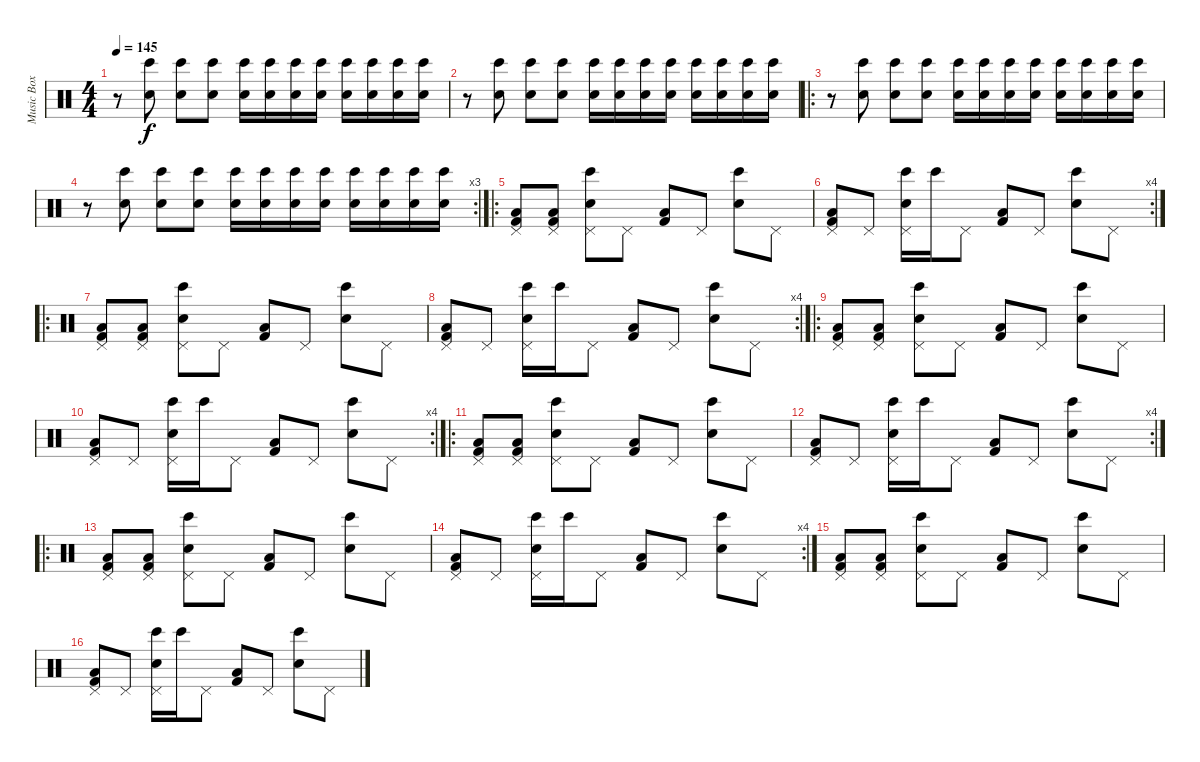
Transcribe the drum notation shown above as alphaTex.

\track ("Music Box" "Music Box") {instrument percussion}
\staff {score}
\articulation defaults
\ts (4 4)
\tempo 145
\clef neutral
\ks c
r.8{dy f} ("Bongo High (hit)" "Snare (hit) 2").8 ("Bongo High (hit)" "Snare (hit) 2").8 ("Bongo High (hit)" "Snare (hit) 2").8 ("Bongo High (hit)" "Snare (hit) 2").16 ("Bongo High (hit)" "Snare (hit) 2").16 ("Bongo High (hit)" "Snare (hit) 2").16 ("Bongo High (hit)" "Snare (hit) 2").16 ("Bongo High (hit)" "Snare (hit) 2").16 ("Bongo High (hit)" "Snare (hit) 2").16 ("Bongo High (hit)" "Snare (hit) 2").16 ("Bongo High (hit)" "Snare (hit) 2").16 |
r.8 ("Bongo High (hit)" "Snare (hit) 2").8 ("Bongo High (hit)" "Snare (hit) 2").8 ("Bongo High (hit)" "Snare (hit) 2").8 ("Bongo High (hit)" "Snare (hit) 2").16 ("Bongo High (hit)" "Snare (hit) 2").16 ("Bongo High (hit)" "Snare (hit) 2").16 ("Bongo High (hit)" "Snare (hit) 2").16 ("Bongo High (hit)" "Snare (hit) 2").16 ("Bongo High (hit)" "Snare (hit) 2").16 ("Bongo High (hit)" "Snare (hit) 2").16 ("Bongo High (hit)" "Snare (hit) 2").16 |
\ro
r.8 ("Bongo High (hit)" "Snare (hit) 2").8 ("Bongo High (hit)" "Snare (hit) 2").8 ("Bongo High (hit)" "Snare (hit) 2").8 ("Bongo High (hit)" "Snare (hit) 2").16 ("Bongo High (hit)" "Snare (hit) 2").16 ("Bongo High (hit)" "Snare (hit) 2").16 ("Bongo High (hit)" "Snare (hit) 2").16 ("Bongo High (hit)" "Snare (hit) 2").16 ("Bongo High (hit)" "Snare (hit) 2").16 ("Bongo High (hit)" "Snare (hit) 2").16 ("Bongo High (hit)" "Snare (hit) 2").16 |
\rc 3
r.8 ("Bongo High (hit)" "Snare (hit) 2").8 ("Bongo High (hit)" "Snare (hit) 2").8 ("Bongo High (hit)" "Snare (hit) 2").8 ("Bongo High (hit)" "Snare (hit) 2").16 ("Bongo High (hit)" "Snare (hit) 2").16 ("Bongo High (hit)" "Snare (hit) 2").16 ("Bongo High (hit)" "Snare (hit) 2").16 ("Bongo High (hit)" "Snare (hit) 2").16 ("Bongo High (hit)" "Snare (hit) 2").16 ("Bongo High (hit)" "Snare (hit) 2").16 ("Bongo High (hit)" "Snare (hit) 2").16 |
\ro
("Pedal Hi-Hat (hit)" "Kick (hit) 2" "Low Floor Tom (hit)").8 ("Pedal Hi-Hat (hit)" "Kick (hit) 2" "Low Floor Tom (hit)").8 ("Pedal Hi-Hat (hit)" "Snare (hit) 2" "Bongo High (hit)").8 "Pedal Hi-Hat (hit)".8 ("Kick (hit) 2" "Low Floor Tom (hit)").8 "Pedal Hi-Hat (hit)".8 ("Snare (hit) 2" "Bongo High (hit)").8 "Pedal Hi-Hat (hit)".8 |
\rc 4
("Pedal Hi-Hat (hit)" "Kick (hit) 2" "Low Floor Tom (hit)").8 "Pedal Hi-Hat (hit)".8 ("Pedal Hi-Hat (hit)" "Snare (hit) 2" "Bongo High (hit)").16 "Bongo High (hit)".16 "Pedal Hi-Hat (hit)".8 ("Kick (hit) 2" "Low Floor Tom (hit)").8 "Pedal Hi-Hat (hit)".8 ("Snare (hit) 2" "Bongo High (hit)").8 "Pedal Hi-Hat (hit)".8 |
\ro
("Pedal Hi-Hat (hit)" "Kick (hit) 2" "Low Floor Tom (hit)").8 ("Pedal Hi-Hat (hit)" "Kick (hit) 2" "Low Floor Tom (hit)").8 ("Pedal Hi-Hat (hit)" "Snare (hit) 2" "Bongo High (hit)").8 "Pedal Hi-Hat (hit)".8 ("Kick (hit) 2" "Low Floor Tom (hit)").8 "Pedal Hi-Hat (hit)".8 ("Snare (hit) 2" "Bongo High (hit)").8 "Pedal Hi-Hat (hit)".8 |
\rc 4
("Pedal Hi-Hat (hit)" "Kick (hit) 2" "Low Floor Tom (hit)").8 "Pedal Hi-Hat (hit)".8 ("Pedal Hi-Hat (hit)" "Snare (hit) 2" "Bongo High (hit)").16 "Bongo High (hit)".16 "Pedal Hi-Hat (hit)".8 ("Kick (hit) 2" "Low Floor Tom (hit)").8 "Pedal Hi-Hat (hit)".8 ("Snare (hit) 2" "Bongo High (hit)").8 "Pedal Hi-Hat (hit)".8 |
\ro
("Pedal Hi-Hat (hit)" "Kick (hit) 2" "Low Floor Tom (hit)").8 ("Pedal Hi-Hat (hit)" "Kick (hit) 2" "Low Floor Tom (hit)").8 ("Pedal Hi-Hat (hit)" "Snare (hit) 2" "Bongo High (hit)").8 "Pedal Hi-Hat (hit)".8 ("Kick (hit) 2" "Low Floor Tom (hit)").8 "Pedal Hi-Hat (hit)".8 ("Snare (hit) 2" "Bongo High (hit)").8 "Pedal Hi-Hat (hit)".8 |
\rc 4
("Pedal Hi-Hat (hit)" "Kick (hit) 2" "Low Floor Tom (hit)").8 "Pedal Hi-Hat (hit)".8 ("Pedal Hi-Hat (hit)" "Snare (hit) 2" "Bongo High (hit)").16 "Bongo High (hit)".16 "Pedal Hi-Hat (hit)".8 ("Kick (hit) 2" "Low Floor Tom (hit)").8 "Pedal Hi-Hat (hit)".8 ("Snare (hit) 2" "Bongo High (hit)").8 "Pedal Hi-Hat (hit)".8 |
\ro
("Pedal Hi-Hat (hit)" "Kick (hit) 2" "Low Floor Tom (hit)").8 ("Pedal Hi-Hat (hit)" "Kick (hit) 2" "Low Floor Tom (hit)").8 ("Pedal Hi-Hat (hit)" "Snare (hit) 2" "Bongo High (hit)").8 "Pedal Hi-Hat (hit)".8 ("Kick (hit) 2" "Low Floor Tom (hit)").8 "Pedal Hi-Hat (hit)".8 ("Snare (hit) 2" "Bongo High (hit)").8 "Pedal Hi-Hat (hit)".8 |
\rc 4
("Pedal Hi-Hat (hit)" "Kick (hit) 2" "Low Floor Tom (hit)").8 "Pedal Hi-Hat (hit)".8 ("Pedal Hi-Hat (hit)" "Snare (hit) 2" "Bongo High (hit)").16 "Bongo High (hit)".16 "Pedal Hi-Hat (hit)".8 ("Kick (hit) 2" "Low Floor Tom (hit)").8 "Pedal Hi-Hat (hit)".8 ("Snare (hit) 2" "Bongo High (hit)").8 "Pedal Hi-Hat (hit)".8 |
\ro
("Pedal Hi-Hat (hit)" "Kick (hit) 2" "Low Floor Tom (hit)").8 ("Pedal Hi-Hat (hit)" "Kick (hit) 2" "Low Floor Tom (hit)").8 ("Pedal Hi-Hat (hit)" "Snare (hit) 2" "Bongo High (hit)").8 "Pedal Hi-Hat (hit)".8 ("Kick (hit) 2" "Low Floor Tom (hit)").8 "Pedal Hi-Hat (hit)".8 ("Snare (hit) 2" "Bongo High (hit)").8 "Pedal Hi-Hat (hit)".8 |
\rc 4
("Pedal Hi-Hat (hit)" "Kick (hit) 2" "Low Floor Tom (hit)").8 "Pedal Hi-Hat (hit)".8 ("Pedal Hi-Hat (hit)" "Snare (hit) 2" "Bongo High (hit)").16 "Bongo High (hit)".16 "Pedal Hi-Hat (hit)".8 ("Kick (hit) 2" "Low Floor Tom (hit)").8 "Pedal Hi-Hat (hit)".8 ("Snare (hit) 2" "Bongo High (hit)").8 "Pedal Hi-Hat (hit)".8 |
("Pedal Hi-Hat (hit)" "Kick (hit) 2" "Low Floor Tom (hit)").8 ("Pedal Hi-Hat (hit)" "Kick (hit) 2" "Low Floor Tom (hit)").8 ("Pedal Hi-Hat (hit)" "Snare (hit) 2" "Bongo High (hit)").8 "Pedal Hi-Hat (hit)".8 ("Kick (hit) 2" "Low Floor Tom (hit)").8 "Pedal Hi-Hat (hit)".8 ("Snare (hit) 2" "Bongo High (hit)").8 "Pedal Hi-Hat (hit)".8 |
("Pedal Hi-Hat (hit)" "Kick (hit) 2" "Low Floor Tom (hit)").8 "Pedal Hi-Hat (hit)".8 ("Pedal Hi-Hat (hit)" "Snare (hit) 2" "Bongo High (hit)").16 "Bongo High (hit)".16 "Pedal Hi-Hat (hit)".8 ("Kick (hit) 2" "Low Floor Tom (hit)").8 "Pedal Hi-Hat (hit)".8 ("Snare (hit) 2" "Bongo High (hit)").8 "Pedal Hi-Hat (hit)".8
